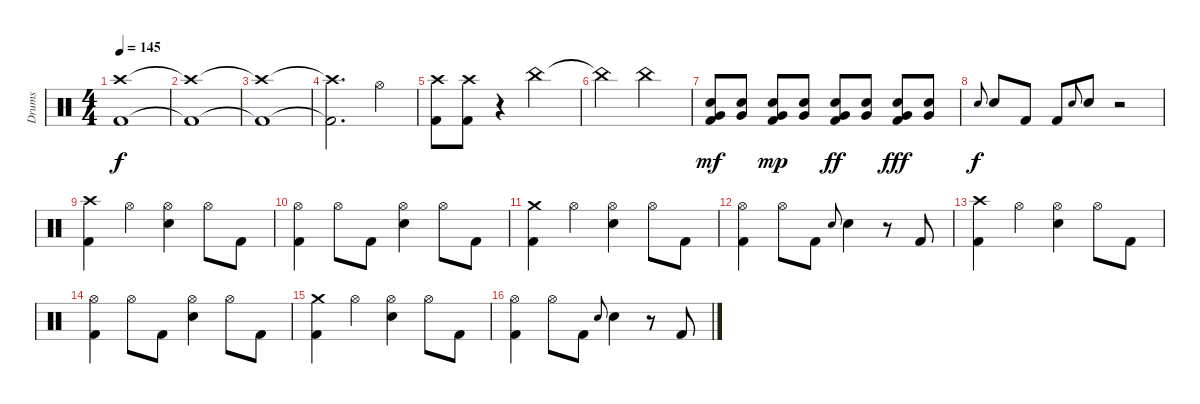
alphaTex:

\track ("Drums" "Drums") {instrument percussion}
\staff {score}
\articulation defaults
\ts (4 4)
\tempo 145
\clef neutral
\ks c
("Crash high (hit)" "Kick (hit) 2").1{dy f} |
("Crash high (hit)"{t} "Kick (hit) 2"{t}).1 |
("Crash high (hit)"{t} "Kick (hit) 2"{t}).1 |
("Crash high (hit)"{t} "Kick (hit) 2"{t}).2{d} "Hi-Hat (open)".4 |
("Crash high (hit)" "Kick (hit) 2").8 ("Crash high (hit)" "Kick (hit) 2").8 r.4 "China (hit)".2 |
"China (hit)"{t}.2 "China (hit)".2 |
("Electric Snare (hit)" "Very Low Tom (hit)" "Kick (hit) 2").8{dy mf} ("Electric Snare (hit)" "Very Low Tom (hit)").8 ("Electric Snare (hit)" "Very Low Tom (hit)" "Kick (hit) 2").8{dy mp} ("Electric Snare (hit)" "Very Low Tom (hit)").8 ("Electric Snare (hit)" "Very Low Tom (hit)" "Kick (hit) 2").8{dy ff} ("Electric Snare (hit)" "Very Low Tom (hit)").8 ("Electric Snare (hit)" "Very Low Tom (hit)" "Kick (hit) 2").8{dy fff} ("Electric Snare (hit)" "Very Low Tom (hit)").8 |
"Electric Snare (hit)".8{gr onbeat dy f} "Electric Snare (hit)".8 "Kick (hit) 2".8 "Kick (hit) 2".8 "Electric Snare (hit)".8{gr onbeat} "Electric Snare (hit)".8 r.2 |
("Crash high (hit)" "Kick (hit) 2").4 "Hi-Hat (open)".4 ("Hi-Hat (open)" "Electric Snare (hit)").4 "Hi-Hat (open)".8 "Kick (hit) 2".8 |
("Hi-Hat (open)" "Kick (hit) 2").4 "Hi-Hat (open)".8 "Kick (hit) 2".8 ("Hi-Hat (open)" "Electric Snare (hit)").4 "Hi-Hat (open)".8 "Kick (hit) 2".8 |
("Crash medium (hit)" "Kick (hit) 2").4 "Hi-Hat (open)".4 ("Hi-Hat (open)" "Electric Snare (hit)").4 "Hi-Hat (open)".8 "Kick (hit) 2".8 |
("Hi-Hat (open)" "Kick (hit) 2").4 "Hi-Hat (open)".8 "Kick (hit) 2".8 "Electric Snare (hit)".8{gr onbeat} "Electric Snare (hit)".4 r.8 "Kick (hit) 2".8 |
("Crash high (hit)" "Kick (hit) 2").4 "Hi-Hat (open)".4 ("Hi-Hat (open)" "Electric Snare (hit)").4 "Hi-Hat (open)".8 "Kick (hit) 2".8 |
("Hi-Hat (open)" "Kick (hit) 2").4 "Hi-Hat (open)".8 "Kick (hit) 2".8 ("Hi-Hat (open)" "Electric Snare (hit)").4 "Hi-Hat (open)".8 "Kick (hit) 2".8 |
("Crash medium (hit)" "Kick (hit) 2").4 "Hi-Hat (open)".4 ("Hi-Hat (open)" "Electric Snare (hit)").4 "Hi-Hat (open)".8 "Kick (hit) 2".8 |
("Hi-Hat (open)" "Kick (hit) 2").4 "Hi-Hat (open)".8 "Kick (hit) 2".8 "Electric Snare (hit)".8{gr onbeat} "Electric Snare (hit)".4 r.8 "Kick (hit) 2".8
